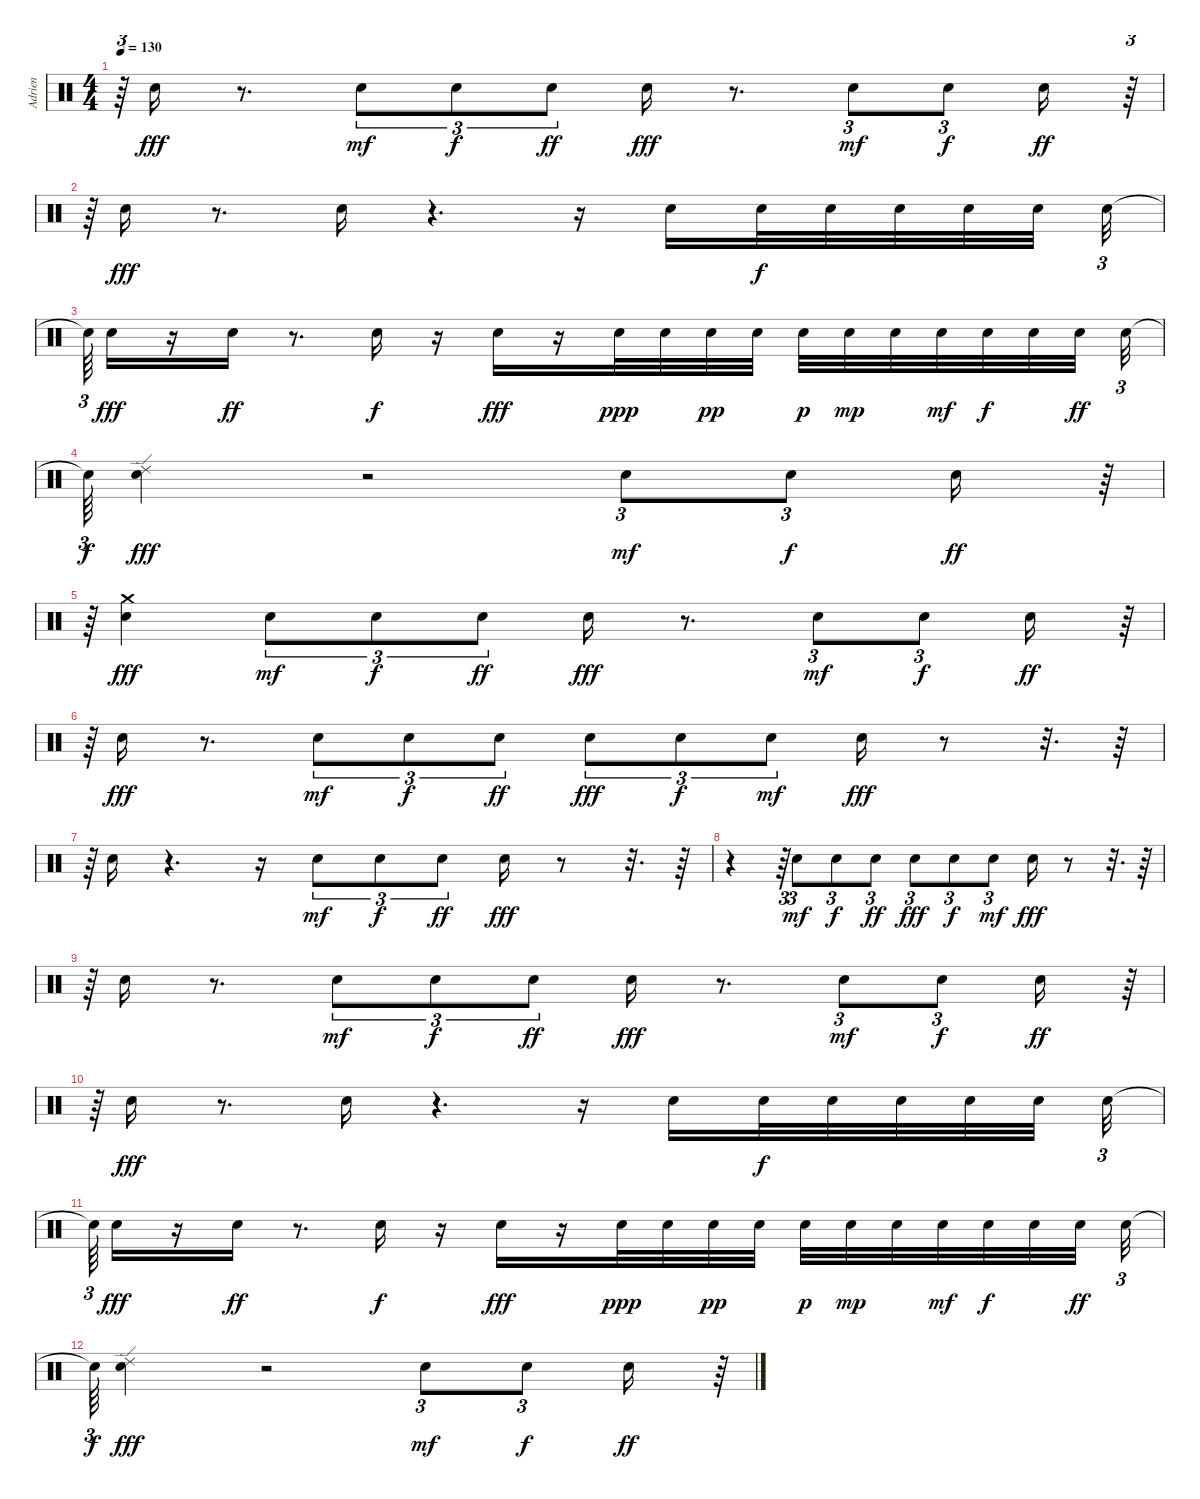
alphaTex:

\track ("Adrien" "Adrien") {instrument percussion}
\staff {score}
\articulation defaults
\ts (4 4)
\tempo 130
\clef neutral
\ks c
r.64{tu (3 2) dy fff} "Snare (hit) 2".16 r.8{d} "Snare (hit) 2".8{tu (3 2) dy mf} "Snare (hit) 2".8{tu (3 2) dy f} "Snare (hit) 2".8{tu (3 2) dy ff} "Snare (hit) 2".16{dy fff} r.8{d} "Snare (hit) 2".8{tu (3 2) dy mf} "Snare (hit) 2".8{tu (3 2) dy f} "Snare (hit) 2".16{dy ff} r.64{tu (3 2)} |
r.64{tu (3 2)} "Snare (hit) 2".16{dy fff} r.8{d} "Snare (hit) 2".16 r.4{d} r.16 "Snare (hit) 2".16 "Snare (hit) 2".32{dy f} "Snare (hit) 2".32 "Snare (hit) 2".32 "Snare (hit) 2".32 "Snare (hit) 2".32{beam splitsecondary} "Snare (hit) 2".32{tu (3 2)} |
"Snare (hit)"{t}.64{tu (3 2)} "Snare (hit) 2".16{dy fff} r.16 "Snare (hit) 2".16{dy ff} r.8{d} "Snare (hit) 2".16{dy f} r.16 "Snare (hit) 2".16{dy fff} r.16 "Snare (hit) 2".32{dy ppp} "Snare (hit) 2".32 "Snare (hit) 2".32{dy pp} "Snare (hit) 2".32 "Snare (hit) 2".32{dy p} "Snare (hit) 2".32{dy mp} "Snare (hit) 2".32 "Snare (hit) 2".32{dy mf} "Snare (hit) 2".32{dy f} "Snare (hit) 2".32 "Snare (hit) 2".32{dy ff beam splitsecondary} "Snare (hit) 2".32{tu (3 2)} |
"Snare (hit)"{t}.64{tu (3 2) dy f} ("Snare (hit) 2" "Ride (edge) 2").4{dy fff} r.2 "Snare (hit) 2".8{tu (3 2) dy mf} "Snare (hit) 2".8{tu (3 2) dy f} "Snare (hit) 2".16{dy ff} r.64{tu (3 2)} |
r.64{tu (3 2)} ("Snare (hit) 2" "Crash medium (hit)").4{dy fff} "Snare (hit) 2".8{tu (3 2) dy mf} "Snare (hit) 2".8{tu (3 2) dy f} "Snare (hit) 2".8{tu (3 2) dy ff} "Snare (hit) 2".16{dy fff} r.8{d} "Snare (hit) 2".8{tu (3 2) dy mf} "Snare (hit) 2".8{tu (3 2) dy f} "Snare (hit) 2".16{dy ff} r.64{tu (3 2)} |
r.64{tu (3 2)} "Snare (hit) 2".16{dy fff} r.8{d} "Snare (hit) 2".8{tu (3 2) dy mf} "Snare (hit) 2".8{tu (3 2) dy f} "Snare (hit) 2".8{tu (3 2) dy ff} "Snare (hit) 2".8{tu (3 2) dy fff} "Snare (hit) 2".8{tu (3 2) dy f} "Snare (hit) 2".8{tu (3 2) dy mf} "Snare (hit) 2".16{dy fff} r.8 r.32{d} r.64 |
r.64{tu (3 2)} "Snare (hit) 2".16 r.4{d} r.16 "Snare (hit) 2".8{tu (3 2) dy mf} "Snare (hit) 2".8{tu (3 2) dy f} "Snare (hit) 2".8{tu (3 2) dy ff} "Snare (hit) 2".16{dy fff} r.8 r.32{d} r.64 |
r.4 r.64{tu (3 2)} "Snare (hit) 2".8{tu (3 2) dy mf} "Snare (hit) 2".8{tu (3 2) dy f} "Snare (hit) 2".8{tu (3 2) dy ff} "Snare (hit) 2".8{tu (3 2) dy fff} "Snare (hit) 2".8{tu (3 2) dy f} "Snare (hit) 2".8{tu (3 2) dy mf} "Snare (hit) 2".16{dy fff} r.8 r.32{d} r.64 |
r.64{tu (3 2)} "Snare (hit) 2".16 r.8{d} "Snare (hit) 2".8{tu (3 2) dy mf} "Snare (hit) 2".8{tu (3 2) dy f} "Snare (hit) 2".8{tu (3 2) dy ff} "Snare (hit) 2".16{dy fff} r.8{d} "Snare (hit) 2".8{tu (3 2) dy mf} "Snare (hit) 2".8{tu (3 2) dy f} "Snare (hit) 2".16{dy ff} r.64{tu (3 2)} |
r.64{tu (3 2)} "Snare (hit) 2".16{dy fff} r.8{d} "Snare (hit) 2".16 r.4{d} r.16 "Snare (hit) 2".16 "Snare (hit) 2".32{dy f} "Snare (hit) 2".32 "Snare (hit) 2".32 "Snare (hit) 2".32 "Snare (hit) 2".32{beam splitsecondary} "Snare (hit) 2".32{tu (3 2)} |
"Snare (hit)"{t}.64{tu (3 2)} "Snare (hit) 2".16{dy fff} r.16 "Snare (hit) 2".16{dy ff} r.8{d} "Snare (hit) 2".16{dy f} r.16 "Snare (hit) 2".16{dy fff} r.16 "Snare (hit) 2".32{dy ppp} "Snare (hit) 2".32 "Snare (hit) 2".32{dy pp} "Snare (hit) 2".32 "Snare (hit) 2".32{dy p} "Snare (hit) 2".32{dy mp} "Snare (hit) 2".32 "Snare (hit) 2".32{dy mf} "Snare (hit) 2".32{dy f} "Snare (hit) 2".32 "Snare (hit) 2".32{dy ff beam splitsecondary} "Snare (hit) 2".32{tu (3 2)} |
"Snare (hit)"{t}.64{tu (3 2) dy f} ("Snare (hit) 2" "Ride (edge) 2").4{dy fff} r.2 "Snare (hit) 2".8{tu (3 2) dy mf} "Snare (hit) 2".8{tu (3 2) dy f} "Snare (hit) 2".16{dy ff} r.64{tu (3 2)}
